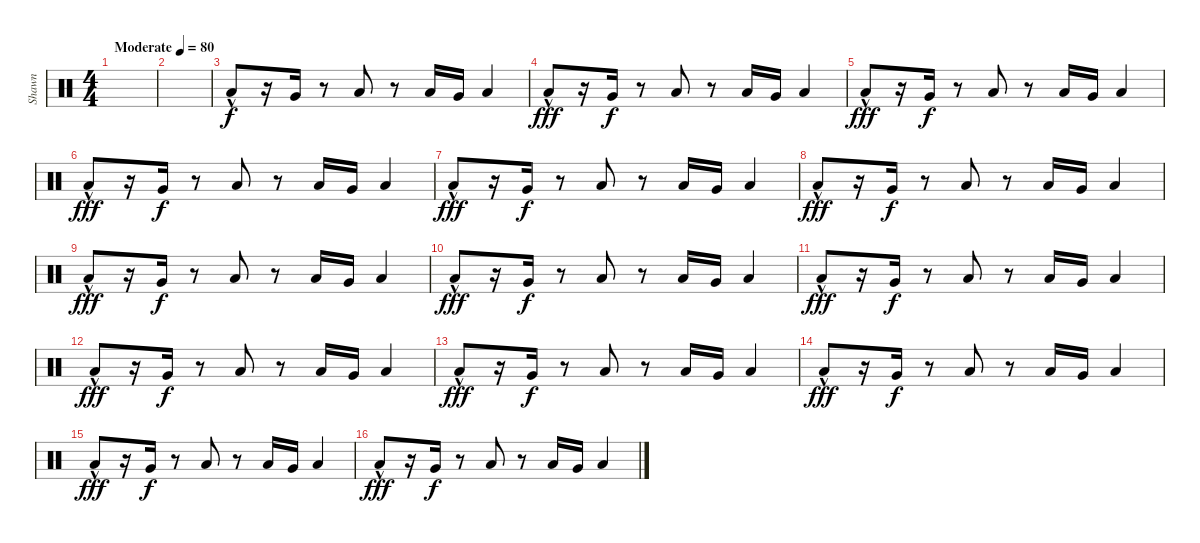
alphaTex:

\track ("Shawn" "Shawn") {instrument percussion}
\staff {score}
\articulation defaults
\ts (4 4)
\tempo (80 "Moderate")
\clef neutral
\ks c
|
|
"Low Floor Tom (hit)"{hac}.8 r.16 "Very Low Tom (hit)".16{dy f} r.8 "Low Floor Tom (hit)".8 r.8 "Low Floor Tom (hit)".16 "Very Low Tom (hit)".16 "Low Floor Tom (hit)".4 |
"Low Floor Tom (hit)"{hac}.8{dy fff} r.16 "Very Low Tom (hit)".16{dy f} r.8 "Low Floor Tom (hit)".8 r.8 "Low Floor Tom (hit)".16 "Very Low Tom (hit)".16 "Low Floor Tom (hit)".4 |
"Low Floor Tom (hit)"{hac}.8{dy fff} r.16 "Very Low Tom (hit)".16{dy f} r.8 "Low Floor Tom (hit)".8 r.8 "Low Floor Tom (hit)".16 "Very Low Tom (hit)".16 "Low Floor Tom (hit)".4 |
"Low Floor Tom (hit)"{hac}.8{dy fff} r.16 "Very Low Tom (hit)".16{dy f} r.8 "Low Floor Tom (hit)".8 r.8 "Low Floor Tom (hit)".16 "Very Low Tom (hit)".16 "Low Floor Tom (hit)".4 |
"Low Floor Tom (hit)"{hac}.8{dy fff} r.16 "Very Low Tom (hit)".16{dy f} r.8 "Low Floor Tom (hit)".8 r.8 "Low Floor Tom (hit)".16 "Very Low Tom (hit)".16 "Low Floor Tom (hit)".4 |
"Low Floor Tom (hit)"{hac}.8{dy fff} r.16 "Very Low Tom (hit)".16{dy f} r.8 "Low Floor Tom (hit)".8 r.8 "Low Floor Tom (hit)".16 "Very Low Tom (hit)".16 "Low Floor Tom (hit)".4 |
"Low Floor Tom (hit)"{hac}.8{dy fff} r.16 "Very Low Tom (hit)".16{dy f} r.8 "Low Floor Tom (hit)".8 r.8 "Low Floor Tom (hit)".16 "Very Low Tom (hit)".16 "Low Floor Tom (hit)".4 |
"Low Floor Tom (hit)"{hac}.8{dy fff} r.16 "Very Low Tom (hit)".16{dy f} r.8 "Low Floor Tom (hit)".8 r.8 "Low Floor Tom (hit)".16 "Very Low Tom (hit)".16 "Low Floor Tom (hit)".4 |
"Low Floor Tom (hit)"{hac}.8{dy fff} r.16 "Very Low Tom (hit)".16{dy f} r.8 "Low Floor Tom (hit)".8 r.8 "Low Floor Tom (hit)".16 "Very Low Tom (hit)".16 "Low Floor Tom (hit)".4 |
"Low Floor Tom (hit)"{hac}.8{dy fff} r.16 "Very Low Tom (hit)".16{dy f} r.8 "Low Floor Tom (hit)".8 r.8 "Low Floor Tom (hit)".16 "Very Low Tom (hit)".16 "Low Floor Tom (hit)".4 |
"Low Floor Tom (hit)"{hac}.8{dy fff} r.16 "Very Low Tom (hit)".16{dy f} r.8 "Low Floor Tom (hit)".8 r.8 "Low Floor Tom (hit)".16 "Very Low Tom (hit)".16 "Low Floor Tom (hit)".4 |
"Low Floor Tom (hit)"{hac}.8{dy fff} r.16 "Very Low Tom (hit)".16{dy f} r.8 "Low Floor Tom (hit)".8 r.8 "Low Floor Tom (hit)".16 "Very Low Tom (hit)".16 "Low Floor Tom (hit)".4 |
"Low Floor Tom (hit)"{hac}.8{dy fff} r.16 "Very Low Tom (hit)".16{dy f} r.8 "Low Floor Tom (hit)".8 r.8 "Low Floor Tom (hit)".16 "Very Low Tom (hit)".16 "Low Floor Tom (hit)".4 |
"Low Floor Tom (hit)"{hac}.8{dy fff} r.16 "Very Low Tom (hit)".16{dy f} r.8 "Low Floor Tom (hit)".8 r.8 "Low Floor Tom (hit)".16 "Very Low Tom (hit)".16 "Low Floor Tom (hit)".4
